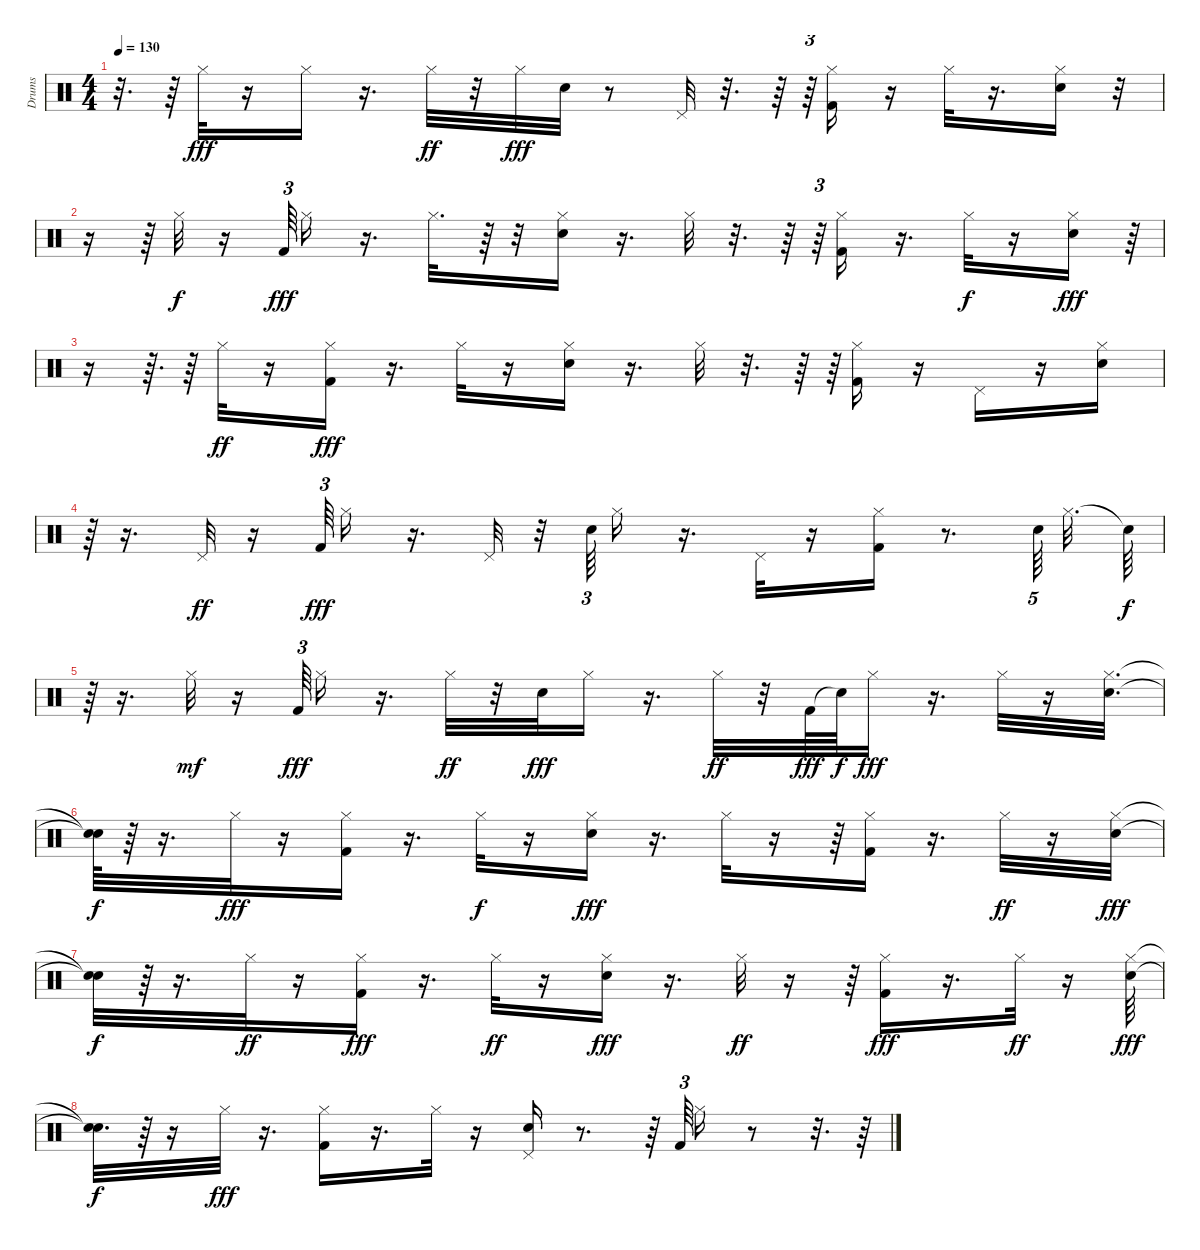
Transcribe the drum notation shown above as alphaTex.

\track ("Drums" "Drums") {instrument percussion}
\staff {score}
\articulation defaults
\ts (4 4)
\tempo 130
\clef neutral
\ks c
r.32{d dy fff} r.64 "Hi-Hat (closed)".32 r.16 "Hi-Hat (closed)".16 r.16{d} "Hi-Hat (closed)".32{dy ff} r.32 "Hi-Hat (closed)".32{dy fff} "Electric Snare (hit)".32 r.8 "Pedal Hi-Hat (hit)".32 r.32{d} r.64 r.64{tu (3 2)} ("Kick (hit) 2" "Hi-Hat (closed)").16 r.16 "Hi-Hat (closed)".32 r.16{d} ("Hi-Hat (closed)" "Electric Snare (hit)").16 r.32 |
r.16 r.64 "Hi-Hat (closed)".32{dy f} r.16 "Kick (hit) 2".64{tu (3 2) dy fff} "Hi-Hat (closed)".16 r.16{d} "Hi-Hat (closed)".32{d} r.64 r.32 ("Electric Snare (hit)" "Hi-Hat (closed)").16 r.16{d} "Hi-Hat (closed)".32 r.32{d} r.64 r.64{tu (3 2)} ("Hi-Hat (closed)" "Kick (hit) 2").16 r.16{d} "Hi-Hat (closed)".32{dy f} r.16 ("Electric Snare (hit)" "Hi-Hat (closed)").16{dy fff} r.64 |
r.16 r.64{d} r.64 "Hi-Hat (closed)".32{dy ff} r.16 ("Kick (hit) 2" "Hi-Hat (closed)").16{dy fff} r.16{d} "Hi-Hat (closed)".32 r.16 ("Electric Snare (hit)" "Hi-Hat (closed)").16 r.16{d} "Hi-Hat (closed)".32 r.32{d} r.64 r.64{tu (3 2)} ("Kick (hit) 2" "Hi-Hat (closed)").16 r.16 "Pedal Hi-Hat (hit)".16 r.16 ("Hi-Hat (closed)" "Electric Snare (hit)").16 |
r.64 r.16{d} "Pedal Hi-Hat (hit)".32{dy ff} r.16 "Kick (hit) 2".64{tu (3 2) dy fff} "Hi-Hat (closed)".16 r.16{d} "Pedal Hi-Hat (hit)".32 r.32 "Electric Snare (hit)".64{tu (3 2)} "Hi-Hat (closed)".16 r.16{d} "Pedal Hi-Hat (hit)".32 r.16 ("Kick (hit) 2" "Hi-Hat (closed)").16 r.8{d} "Electric Snare (hit)".64{tu (5 4)} "Hi-Hat (closed)".32{d} "Snare (hit)"{t}.64{dy f} |
r.64 r.16{d} "Hi-Hat (closed)".32{dy mf} r.16 "Kick (hit) 2".64{tu (3 2) dy fff} "Hi-Hat (closed)".16 r.16{d} "Hi-Hat (closed)".32{dy ff} r.32 "Electric Snare (hit)".32{dy fff} "Hi-Hat (closed)".16 r.16{d} "Hi-Hat (closed)".32{dy ff} r.32 "Kick (hit) 2".64{dy fff} "Snare (hit)"{t}.64{dy f} "Hi-Hat (closed)".16{dy fff} r.16{d} "Hi-Hat (closed)".32 r.16 ("Electric Snare (hit)" "Hi-Hat (closed)").32{d} |
("Snare (hit)"{t} "Snare (hit)"{t}).64{dy f} r.64 r.16{d} "Hi-Hat (closed)".32{dy fff} r.16 ("Kick (hit) 2" "Hi-Hat (closed)").16 r.16{d} "Hi-Hat (closed)".32{dy f} r.16 ("Hi-Hat (closed)" "Electric Snare (hit)").16{dy fff} r.16{d} "Hi-Hat (closed)".32 r.16 r.64 ("Kick (hit) 2" "Hi-Hat (closed)").16 r.16{d} "Hi-Hat (closed)".32{dy ff} r.16 ("Hi-Hat (closed)" "Electric Snare (hit)").32{dy fff} |
("Snare (hit)"{t} "Snare (hit)"{t}).32{dy f} r.64 r.16{d} "Hi-Hat (closed)".32{dy ff} r.16 ("Kick (hit) 2" "Hi-Hat (closed)").16{dy fff} r.16{d} "Hi-Hat (closed)".32{dy ff} r.16 ("Hi-Hat (closed)" "Electric Snare (hit)").16{dy fff} r.16{d} "Hi-Hat (closed)".32{dy ff} r.16 r.64 ("Kick (hit) 2" "Hi-Hat (closed)").16{dy fff} r.16{d} "Hi-Hat (closed)".32{dy ff} r.16 ("Hi-Hat (closed)" "Electric Snare (hit)").64{dy fff} |
("Snare (hit)"{t} "Snare (hit)"{t}).32{d dy f} r.64 r.16 "Hi-Hat (closed)".32{dy fff} r.16{d} ("Hi-Hat (closed)" "Kick (hit) 2").16 r.16{d} "Hi-Hat (closed)".32 r.16 ("Pedal Hi-Hat (hit)" "Electric Snare (hit)").16 r.8{d} r.64 "Kick (hit) 2".64{tu (3 2)} "Hi-Hat (closed)".16 r.8 r.32{d} r.64
